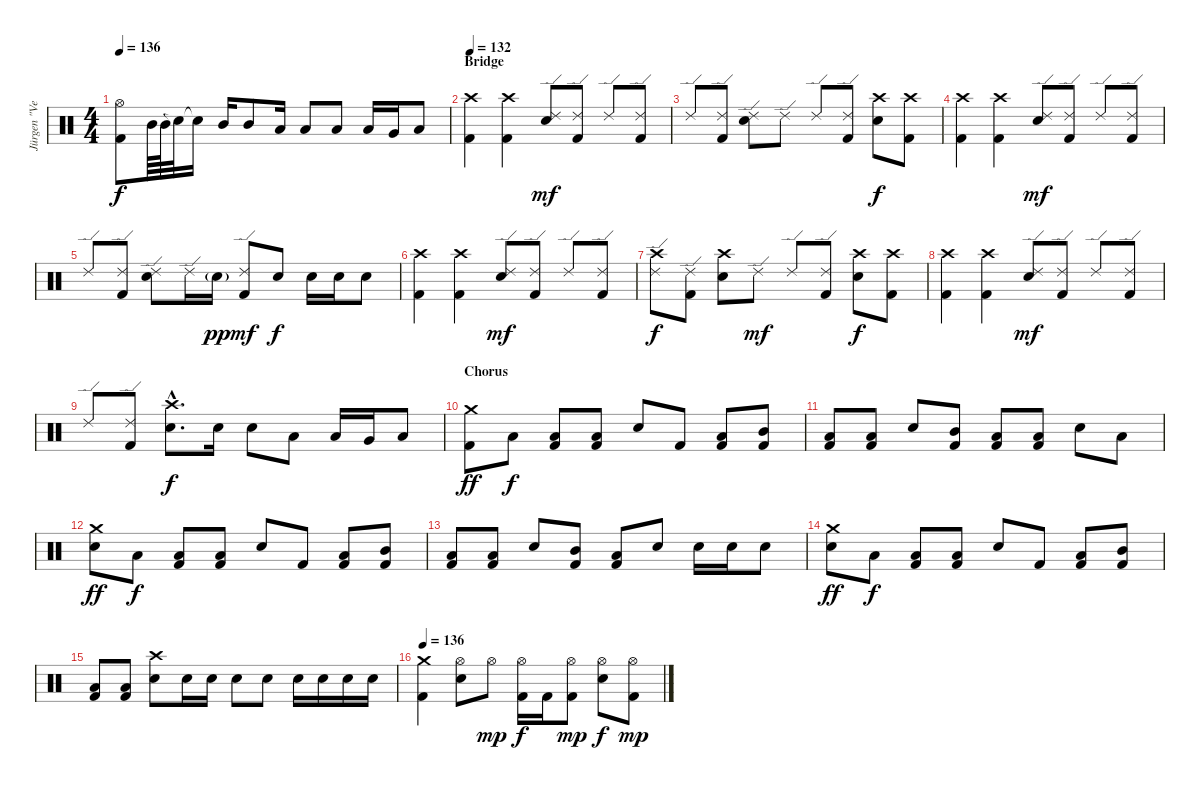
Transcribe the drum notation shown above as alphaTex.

\track ("Jürgen \"Ventor\" Reil" "Jürgen \"Ve") {instrument percussion}
\staff {score}
\articulation defaults
\ts (4 4)
\tempo 136
\clef neutral
\ks c
("Kick (hit) 2" "Hi-Hat (open)").8{dy f} "Mid Tom (hit)".64 "Mid Tom (hit)".64 "Snare (hit)"{t}.32 "Snare (hit)"{t}.16 "Mid Tom (hit)".16 "Mid Tom (hit)".8 "Low Tom (hit)".16 "Low Tom (hit)".8 "Low Tom (hit)".8 "Low Tom (hit)".16 "Very Low Tom (hit)".16 "Low Floor Tom (hit)".8 |
\section ("" "Bridge")
\tempo 132
("Kick (hit) 2" "Crash high (hit)").4 ("Kick (hit) 2" "Crash high (hit)").4 ("Ride (edge) 2" "Snare (hit) 2").8{dy mf} ("Kick (hit) 2" "Ride (edge) 2").8 "Ride (edge) 2".8 ("Kick (hit) 2" "Ride (edge) 2").8 |
"Ride (edge) 2".8 ("Kick (hit) 2" "Ride (edge) 2").8 ("Ride (edge) 2" "Snare (hit) 2").8 "Ride (edge) 2".8 "Ride (edge) 2".8 ("Kick (hit) 2" "Ride (edge) 2").8 ("Crash high (hit)" "Snare (hit) 2").8{dy f} ("Kick (hit) 2" "Crash high (hit)").8 |
("Kick (hit) 2" "Crash high (hit)").4 ("Kick (hit) 2" "Crash high (hit)").4 ("Ride (edge) 2" "Snare (hit) 2").8{dy mf} ("Kick (hit) 2" "Ride (edge) 2").8 "Ride (edge) 2".8 ("Kick (hit) 2" "Ride (edge) 2").8 |
"Ride (edge) 2".8 ("Kick (hit) 2" "Ride (edge) 2").8 ("Ride (edge) 2" "Snare (hit) 2").8 "Ride (edge) 2".16 "Snare (hit) 2"{g}.16{dy pp} ("Kick (hit) 2" "Ride (edge) 2").8{dy mf} "Snare (hit) 2".8{dy f} "Snare (hit) 2".16 "Snare (hit) 2".16 "Snare (hit) 2".8 |
("Kick (hit) 2" "Crash high (hit)").4 ("Kick (hit) 2" "Crash high (hit)").4 ("Ride (edge) 2" "Snare (hit) 2").8{dy mf} ("Kick (hit) 2" "Ride (edge) 2").8 "Ride (edge) 2".8 ("Kick (hit) 2" "Ride (edge) 2").8 |
("Ride (edge) 2" "Crash high (hit)").8{dy f} ("Kick (hit) 2" "Ride (edge) 2").8 ("Crash high (hit)" "Snare (hit) 2").8 "Ride (edge) 2".8{dy mf} "Ride (edge) 2".8 ("Kick (hit) 2" "Ride (edge) 2").8 ("Crash high (hit)" "Snare (hit) 2").8{dy f} ("Kick (hit) 2" "Crash high (hit)").8 |
("Kick (hit) 2" "Crash high (hit)").4 ("Kick (hit) 2" "Crash high (hit)").4 ("Ride (edge) 2" "Snare (hit) 2").8{dy mf} ("Kick (hit) 2" "Ride (edge) 2").8 "Ride (edge) 2".8 ("Kick (hit) 2" "Ride (edge) 2").8 |
"Ride (edge) 2".8 ("Kick (hit) 2" "Ride (edge) 2").8 ("Crash high (hit)"{hac} "Snare (hit) 2"{hac}).8{d dy f} "Snare (hit) 2".16 "Snare (hit) 2".8 "Low Tom (hit)".8 "Low Tom (hit)".16 "Very Low Tom (hit)".16 "Low Floor Tom (hit)".8 |
\section ("" "Chorus")
("Kick (hit) 2" "Crash medium (hit)").8{dy ff} "Low Tom (hit)".8{dy f} ("Kick (hit) 2" "Low Tom (hit)").8 ("Kick (hit) 2" "Low Tom (hit)").8 "Snare (hit) 2".8 "Kick (hit) 2".8 ("Kick (hit) 2" "Low Tom (hit)").8 ("Kick (hit) 2" "Mid Tom (hit)").8 |
("Kick (hit) 2" "Low Tom (hit)").8 ("Kick (hit) 2" "Low Tom (hit)").8 "Snare (hit) 2".8 ("Kick (hit) 2" "Mid Tom (hit)").8 ("Kick (hit) 2" "Low Tom (hit)").8 ("Kick (hit) 2" "Low Tom (hit)").8 "Snare (hit) 2".8 "Low Tom (hit)".8 |
("Crash medium (hit)" "Snare (hit) 2").8{dy ff} "Low Tom (hit)".8{dy f} ("Kick (hit) 2" "Low Tom (hit)").8 ("Kick (hit) 2" "Low Tom (hit)").8 "Snare (hit) 2".8 "Kick (hit) 2".8 ("Kick (hit) 2" "Low Tom (hit)").8 ("Kick (hit) 2" "Mid Tom (hit)").8 |
("Kick (hit) 2" "Low Tom (hit)").8 ("Kick (hit) 2" "Low Tom (hit)").8 "Snare (hit) 2".8 ("Kick (hit) 2" "Mid Tom (hit)").8 ("Kick (hit) 2" "Low Tom (hit)").8 "Snare (hit) 2".8 "Snare (hit) 2".16 "Snare (hit) 2".16 "Snare (hit) 2".8 |
("Crash medium (hit)" "Snare (hit) 2").8{dy ff} "Low Tom (hit)".8{dy f} ("Kick (hit) 2" "Low Tom (hit)").8 ("Kick (hit) 2" "Low Tom (hit)").8 "Snare (hit) 2".8 "Kick (hit) 2".8 ("Kick (hit) 2" "Low Tom (hit)").8 ("Kick (hit) 2" "Mid Tom (hit)").8 |
("Kick (hit) 2" "Low Tom (hit)").8 ("Kick (hit) 2" "Low Tom (hit)").8 ("Crash high (hit)" "Snare (hit) 2").8 "Snare (hit) 2".16 "Snare (hit) 2".16 "Snare (hit) 2".8 "Snare (hit) 2".8 "Snare (hit) 2".16 "Snare (hit) 2".16 "Snare (hit) 2".16 "Snare (hit) 2".16 |
\tempo 136
("Kick (hit) 2" "Crash medium (hit)").4 ("Hi-Hat (open)" "Snare (hit) 2").8 "Hi-Hat (open)".8{dy mp} ("Kick (hit) 2" "Hi-Hat (open)").16{dy f} "Kick (hit) 2".16 ("Kick (hit) 2" "Hi-Hat (open)").8{dy mp} ("Hi-Hat (open)" "Snare (hit) 2").8{dy f} ("Kick (hit) 2" "Hi-Hat (open)").8{dy mp}
